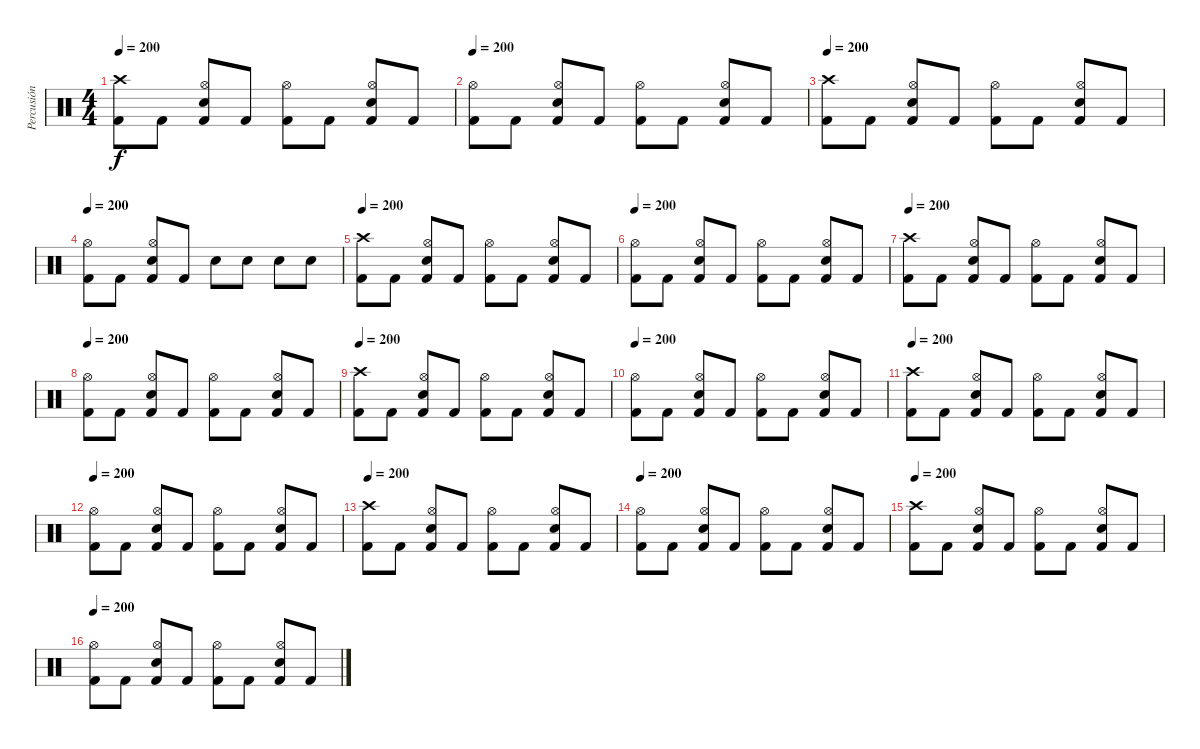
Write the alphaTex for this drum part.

\track ("Percusión" "Percusión") {instrument percussion}
\staff {score}
\articulation defaults
\ts (4 4)
\tempo 200
\clef neutral
\ks c
("Crash high (hit)" "Kick (hit) 2").8{dy f} "Kick (hit) 2".8 ("Hi-Hat (open)" "Kick (hit) 2" "Electric Snare (hit)").8 "Kick (hit) 2".8 ("Hi-Hat (open)" "Kick (hit) 2").8 "Kick (hit) 2".8 ("Hi-Hat (open)" "Kick (hit) 2" "Electric Snare (hit)").8 "Kick (hit) 2".8 |
\tempo 200
("Hi-Hat (open)" "Kick (hit) 2").8 "Kick (hit) 2".8 ("Hi-Hat (open)" "Kick (hit) 2" "Electric Snare (hit)").8 "Kick (hit) 2".8 ("Hi-Hat (open)" "Kick (hit) 2").8 "Kick (hit) 2".8 ("Hi-Hat (open)" "Kick (hit) 2" "Electric Snare (hit)").8 "Kick (hit) 2".8 |
\tempo 200
("Crash high (hit)" "Kick (hit) 2").8 "Kick (hit) 2".8 ("Hi-Hat (open)" "Kick (hit) 2" "Electric Snare (hit)").8 "Kick (hit) 2".8 ("Hi-Hat (open)" "Kick (hit) 2").8 "Kick (hit) 2".8 ("Hi-Hat (open)" "Kick (hit) 2" "Electric Snare (hit)").8 "Kick (hit) 2".8 |
\tempo 200
("Hi-Hat (open)" "Kick (hit) 2").8 "Kick (hit) 2".8 ("Hi-Hat (open)" "Kick (hit) 2" "Electric Snare (hit)").8 "Kick (hit) 2".8 "Electric Snare (hit)".8 "Electric Snare (hit)".8 "Electric Snare (hit)".8 "Electric Snare (hit)".8 |
\tempo 200
("Crash high (hit)" "Kick (hit) 2").8 "Kick (hit) 2".8 ("Hi-Hat (open)" "Kick (hit) 2" "Electric Snare (hit)").8 "Kick (hit) 2".8 ("Hi-Hat (open)" "Kick (hit) 2").8 "Kick (hit) 2".8 ("Hi-Hat (open)" "Kick (hit) 2" "Electric Snare (hit)").8 "Kick (hit) 2".8 |
\tempo 200
("Hi-Hat (open)" "Kick (hit) 2").8 "Kick (hit) 2".8 ("Hi-Hat (open)" "Kick (hit) 2" "Electric Snare (hit)").8 "Kick (hit) 2".8 ("Hi-Hat (open)" "Kick (hit) 2").8 "Kick (hit) 2".8 ("Hi-Hat (open)" "Kick (hit) 2" "Electric Snare (hit)").8 "Kick (hit) 2".8 |
\tempo 200
("Crash high (hit)" "Kick (hit) 2").8 "Kick (hit) 2".8 ("Hi-Hat (open)" "Kick (hit) 2" "Electric Snare (hit)").8 "Kick (hit) 2".8 ("Hi-Hat (open)" "Kick (hit) 2").8 "Kick (hit) 2".8 ("Hi-Hat (open)" "Kick (hit) 2" "Electric Snare (hit)").8 "Kick (hit) 2".8 |
\tempo 200
("Hi-Hat (open)" "Kick (hit) 2").8 "Kick (hit) 2".8 ("Hi-Hat (open)" "Kick (hit) 2" "Electric Snare (hit)").8 "Kick (hit) 2".8 ("Hi-Hat (open)" "Kick (hit) 2").8 "Kick (hit) 2".8 ("Hi-Hat (open)" "Kick (hit) 2" "Electric Snare (hit)").8 "Kick (hit) 2".8 |
\tempo 200
("Crash high (hit)" "Kick (hit) 2").8 "Kick (hit) 2".8 ("Hi-Hat (open)" "Kick (hit) 2" "Electric Snare (hit)").8 "Kick (hit) 2".8 ("Hi-Hat (open)" "Kick (hit) 2").8 "Kick (hit) 2".8 ("Hi-Hat (open)" "Kick (hit) 2" "Electric Snare (hit)").8 "Kick (hit) 2".8 |
\tempo 200
("Hi-Hat (open)" "Kick (hit) 2").8 "Kick (hit) 2".8 ("Hi-Hat (open)" "Kick (hit) 2" "Electric Snare (hit)").8 "Kick (hit) 2".8 ("Hi-Hat (open)" "Kick (hit) 2").8 "Kick (hit) 2".8 ("Hi-Hat (open)" "Kick (hit) 2" "Electric Snare (hit)").8 "Kick (hit) 2".8 |
\tempo 200
("Crash high (hit)" "Kick (hit) 2").8 "Kick (hit) 2".8 ("Hi-Hat (open)" "Kick (hit) 2" "Electric Snare (hit)").8 "Kick (hit) 2".8 ("Hi-Hat (open)" "Kick (hit) 2").8 "Kick (hit) 2".8 ("Hi-Hat (open)" "Kick (hit) 2" "Electric Snare (hit)").8 "Kick (hit) 2".8 |
\tempo 200
("Hi-Hat (open)" "Kick (hit) 2").8 "Kick (hit) 2".8 ("Hi-Hat (open)" "Kick (hit) 2" "Electric Snare (hit)").8 "Kick (hit) 2".8 ("Hi-Hat (open)" "Kick (hit) 2").8 "Kick (hit) 2".8 ("Hi-Hat (open)" "Kick (hit) 2" "Electric Snare (hit)").8 "Kick (hit) 2".8 |
\tempo 200
("Crash high (hit)" "Kick (hit) 2").8 "Kick (hit) 2".8 ("Hi-Hat (open)" "Kick (hit) 2" "Electric Snare (hit)").8 "Kick (hit) 2".8 ("Hi-Hat (open)" "Kick (hit) 2").8 "Kick (hit) 2".8 ("Hi-Hat (open)" "Kick (hit) 2" "Electric Snare (hit)").8 "Kick (hit) 2".8 |
\tempo 200
("Hi-Hat (open)" "Kick (hit) 2").8 "Kick (hit) 2".8 ("Hi-Hat (open)" "Kick (hit) 2" "Electric Snare (hit)").8 "Kick (hit) 2".8 ("Hi-Hat (open)" "Kick (hit) 2").8 "Kick (hit) 2".8 ("Hi-Hat (open)" "Kick (hit) 2" "Electric Snare (hit)").8 "Kick (hit) 2".8 |
\tempo 200
("Crash high (hit)" "Kick (hit) 2").8 "Kick (hit) 2".8 ("Hi-Hat (open)" "Kick (hit) 2" "Electric Snare (hit)").8 "Kick (hit) 2".8 ("Hi-Hat (open)" "Kick (hit) 2").8 "Kick (hit) 2".8 ("Hi-Hat (open)" "Kick (hit) 2" "Electric Snare (hit)").8 "Kick (hit) 2".8 |
\tempo 200
("Hi-Hat (open)" "Kick (hit) 2").8 "Kick (hit) 2".8 ("Hi-Hat (open)" "Kick (hit) 2" "Electric Snare (hit)").8 "Kick (hit) 2".8 ("Hi-Hat (open)" "Kick (hit) 2").8 "Kick (hit) 2".8 ("Hi-Hat (open)" "Kick (hit) 2" "Electric Snare (hit)").8 "Kick (hit) 2".8
